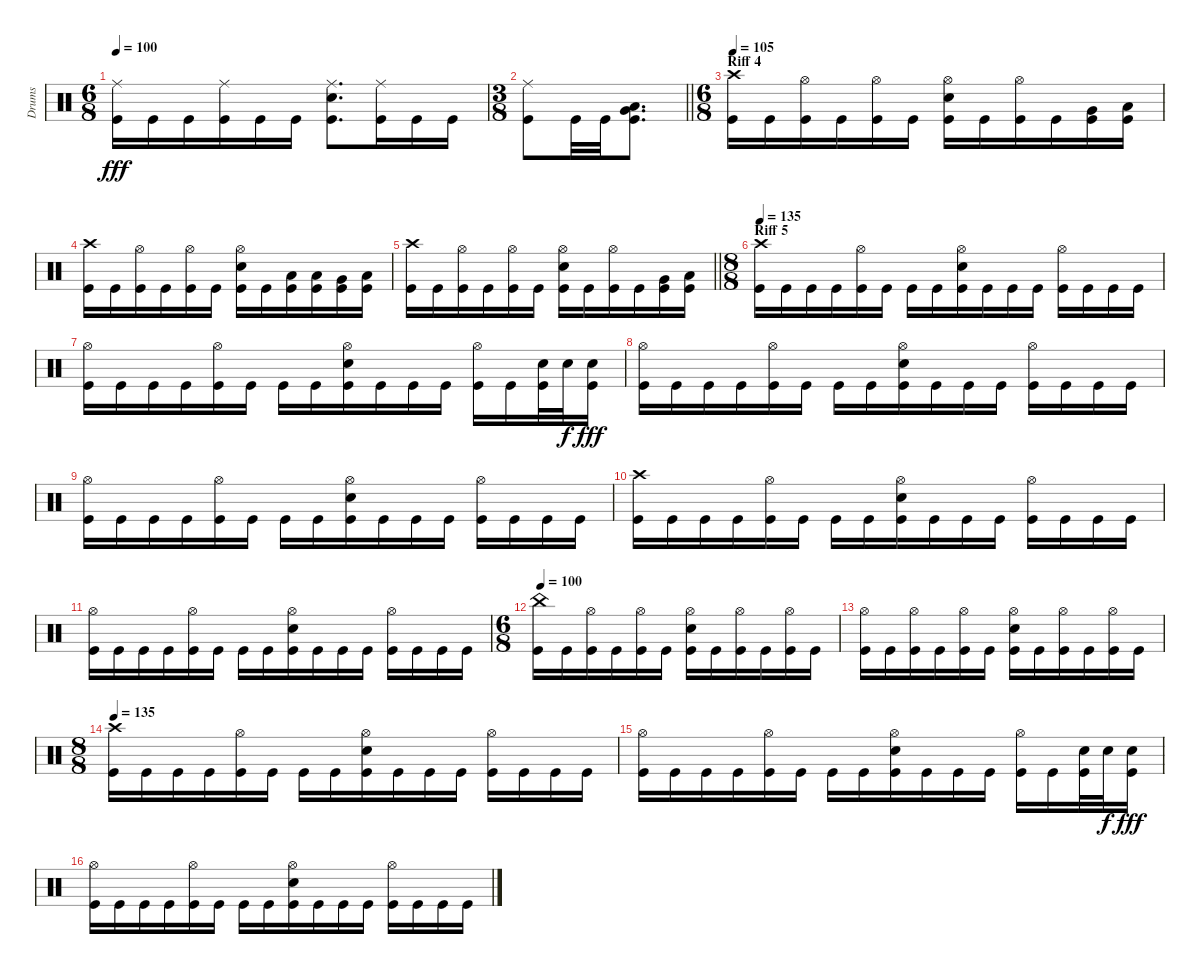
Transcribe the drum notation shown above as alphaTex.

\track ("Drums" "Drums") {instrument percussion}
\staff
\articulation defaults
\ts (6 8)
\tempo 100
\clef neutral
\ks c
("Ride (middle)" "Kick (hit)").16{dy fff} "Kick (hit)".16 "Kick (hit)".16 ("Ride (middle)" "Kick (hit)").16 "Kick (hit)".16 "Kick (hit)".16 ("Ride (middle)" "Snare (hit) 2" "Kick (hit)").8{d} ("Ride (middle)" "Kick (hit)").16 "Kick (hit)".16 "Kick (hit)".16 |
\ts (3 8)
\barLineRight lightlight
("Ride (middle)" "Kick (hit)").8 "Kick (hit)".32 "Kick (hit)".32 ("Very Low Tom (hit)" "Low Floor Tom (hit)" "Kick (hit)").8{d} |
\ts (6 8)
\section ("" "Riff 4")
\tempo 105
("Crash high (hit)" "Kick (hit)").16 "Kick (hit)".16 ("Hi-Hat (open)" "Kick (hit)").16 "Kick (hit)".16 ("Hi-Hat (open)" "Kick (hit)").16 "Kick (hit)".16 ("Hi-Hat (open)" "Snare (hit) 2" "Kick (hit)").16 "Kick (hit)".16 ("Hi-Hat (open)" "Kick (hit)").16 "Kick (hit)".16 ("Very Low Tom (hit)" "Kick (hit)").16 ("Low Floor Tom (hit)" "Kick (hit)").16 |
("Crash high (hit)" "Kick (hit)").16 "Kick (hit)".16 ("Hi-Hat (open)" "Kick (hit)").16 "Kick (hit)".16 ("Hi-Hat (open)" "Kick (hit)").16 "Kick (hit)".16 ("Hi-Hat (open)" "Snare (hit) 2" "Kick (hit)").16 "Kick (hit)".16 ("Low Tom (hit)" "Kick (hit)").16 ("Low Tom (hit)" "Kick (hit)").16 ("Very Low Tom (hit)" "Kick (hit)").16 ("Low Floor Tom (hit)" "Kick (hit)").16 |
\barLineRight lightlight
("Crash high (hit)" "Kick (hit)").16 "Kick (hit)".16 ("Hi-Hat (open)" "Kick (hit)").16 "Kick (hit)".16 ("Hi-Hat (open)" "Kick (hit)").16 "Kick (hit)".16 ("Hi-Hat (open)" "Snare (hit) 2" "Kick (hit)").16 "Kick (hit)".16 ("Hi-Hat (open)" "Kick (hit)").16 "Kick (hit)".16 ("Very Low Tom (hit)" "Kick (hit)").16 ("Low Floor Tom (hit)" "Kick (hit)").16 |
\ts (8 8)
\section ("" "Riff 5")
\tempo 135
("Crash high (hit)" "Kick (hit)").16 "Kick (hit)".16 "Kick (hit)".16 "Kick (hit)".16 ("Hi-Hat (open)" "Kick (hit)").16 "Kick (hit)".16 "Kick (hit)".16 "Kick (hit)".16 ("Hi-Hat (open)" "Snare (hit) 2" "Kick (hit)").16 "Kick (hit)".16 "Kick (hit)".16 "Kick (hit)".16 ("Hi-Hat (open)" "Kick (hit)").16 "Kick (hit)".16 "Kick (hit)".16 "Kick (hit)".16 |
("Hi-Hat (open)" "Kick (hit)").16 "Kick (hit)".16 "Kick (hit)".16 "Kick (hit)".16 ("Hi-Hat (open)" "Kick (hit)").16 "Kick (hit)".16 "Kick (hit)".16 "Kick (hit)".16 ("Hi-Hat (open)" "Snare (hit) 2" "Kick (hit)").16 "Kick (hit)".16 "Kick (hit)".16 "Kick (hit)".16 ("Hi-Hat (open)" "Kick (hit)").16 "Kick (hit)".16 ("Snare (hit) 2" "Kick (hit)").32 "Snare (hit) 2".32{dy f} ("Snare (hit) 2" "Kick (hit)").16{dy fff} |
("Hi-Hat (open)" "Kick (hit)").16 "Kick (hit)".16 "Kick (hit)".16 "Kick (hit)".16 ("Hi-Hat (open)" "Kick (hit)").16 "Kick (hit)".16 "Kick (hit)".16 "Kick (hit)".16 ("Hi-Hat (open)" "Snare (hit) 2" "Kick (hit)").16 "Kick (hit)".16 "Kick (hit)".16 "Kick (hit)".16 ("Hi-Hat (open)" "Kick (hit)").16 "Kick (hit)".16 "Kick (hit)".16 "Kick (hit)".16 |
("Hi-Hat (open)" "Kick (hit)").16 "Kick (hit)".16 "Kick (hit)".16 "Kick (hit)".16 ("Hi-Hat (open)" "Kick (hit)").16 "Kick (hit)".16 "Kick (hit)".16 "Kick (hit)".16 ("Hi-Hat (open)" "Snare (hit) 2" "Kick (hit)").16 "Kick (hit)".16 "Kick (hit)".16 "Kick (hit)".16 ("Hi-Hat (open)" "Kick (hit)").16 "Kick (hit)".16 "Kick (hit)".16 "Kick (hit)".16 |
("Crash high (hit)" "Kick (hit)").16 "Kick (hit)".16 "Kick (hit)".16 "Kick (hit)".16 ("Hi-Hat (open)" "Kick (hit)").16 "Kick (hit)".16 "Kick (hit)".16 "Kick (hit)".16 ("Hi-Hat (open)" "Snare (hit) 2" "Kick (hit)").16 "Kick (hit)".16 "Kick (hit)".16 "Kick (hit)".16 ("Hi-Hat (open)" "Kick (hit)").16 "Kick (hit)".16 "Kick (hit)".16 "Kick (hit)".16 |
("Hi-Hat (open)" "Kick (hit)").16 "Kick (hit)".16 "Kick (hit)".16 "Kick (hit)".16 ("Hi-Hat (open)" "Kick (hit)").16 "Kick (hit)".16 "Kick (hit)".16 "Kick (hit)".16 ("Hi-Hat (open)" "Snare (hit) 2" "Kick (hit)").16 "Kick (hit)".16 "Kick (hit)".16 "Kick (hit)".16 ("Hi-Hat (open)" "Kick (hit)").16 "Kick (hit)".16 "Kick (hit)".16 "Kick (hit)".16 |
\ts (6 8)
\tempo 100
("China (hit)" "Kick (hit)").16 "Kick (hit)".16 ("Hi-Hat (open)" "Kick (hit)").16 "Kick (hit)".16 ("Hi-Hat (open)" "Kick (hit)").16 "Kick (hit)".16 ("Hi-Hat (open)" "Snare (hit) 2" "Kick (hit)").16 "Kick (hit)".16 ("Hi-Hat (open)" "Kick (hit)").16 "Kick (hit)".16 ("Hi-Hat (open)" "Kick (hit)").16 "Kick (hit)".16 |
("Hi-Hat (open)" "Kick (hit)").16 "Kick (hit)".16 ("Hi-Hat (open)" "Kick (hit)").16 "Kick (hit)".16 ("Hi-Hat (open)" "Kick (hit)").16 "Kick (hit)".16 ("Hi-Hat (open)" "Snare (hit) 2" "Kick (hit)").16 "Kick (hit)".16 ("Hi-Hat (open)" "Kick (hit)").16 "Kick (hit)".16 ("Hi-Hat (open)" "Kick (hit)").16 "Kick (hit)".16 |
\ts (8 8)
\tempo 135
("Crash high (hit)" "Kick (hit)").16 "Kick (hit)".16 "Kick (hit)".16 "Kick (hit)".16 ("Hi-Hat (open)" "Kick (hit)").16 "Kick (hit)".16 "Kick (hit)".16 "Kick (hit)".16 ("Hi-Hat (open)" "Snare (hit) 2" "Kick (hit)").16 "Kick (hit)".16 "Kick (hit)".16 "Kick (hit)".16 ("Hi-Hat (open)" "Kick (hit)").16 "Kick (hit)".16 "Kick (hit)".16 "Kick (hit)".16 |
("Hi-Hat (open)" "Kick (hit)").16 "Kick (hit)".16 "Kick (hit)".16 "Kick (hit)".16 ("Hi-Hat (open)" "Kick (hit)").16 "Kick (hit)".16 "Kick (hit)".16 "Kick (hit)".16 ("Hi-Hat (open)" "Snare (hit) 2" "Kick (hit)").16 "Kick (hit)".16 "Kick (hit)".16 "Kick (hit)".16 ("Hi-Hat (open)" "Kick (hit)").16 "Kick (hit)".16 ("Snare (hit) 2" "Kick (hit)").32 "Snare (hit) 2".32{dy f} ("Snare (hit) 2" "Kick (hit)").16{dy fff} |
("Hi-Hat (open)" "Kick (hit)").16 "Kick (hit)".16 "Kick (hit)".16 "Kick (hit)".16 ("Hi-Hat (open)" "Kick (hit)").16 "Kick (hit)".16 "Kick (hit)".16 "Kick (hit)".16 ("Hi-Hat (open)" "Snare (hit) 2" "Kick (hit)").16 "Kick (hit)".16 "Kick (hit)".16 "Kick (hit)".16 ("Hi-Hat (open)" "Kick (hit)").16 "Kick (hit)".16 "Kick (hit)".16 "Kick (hit)".16
